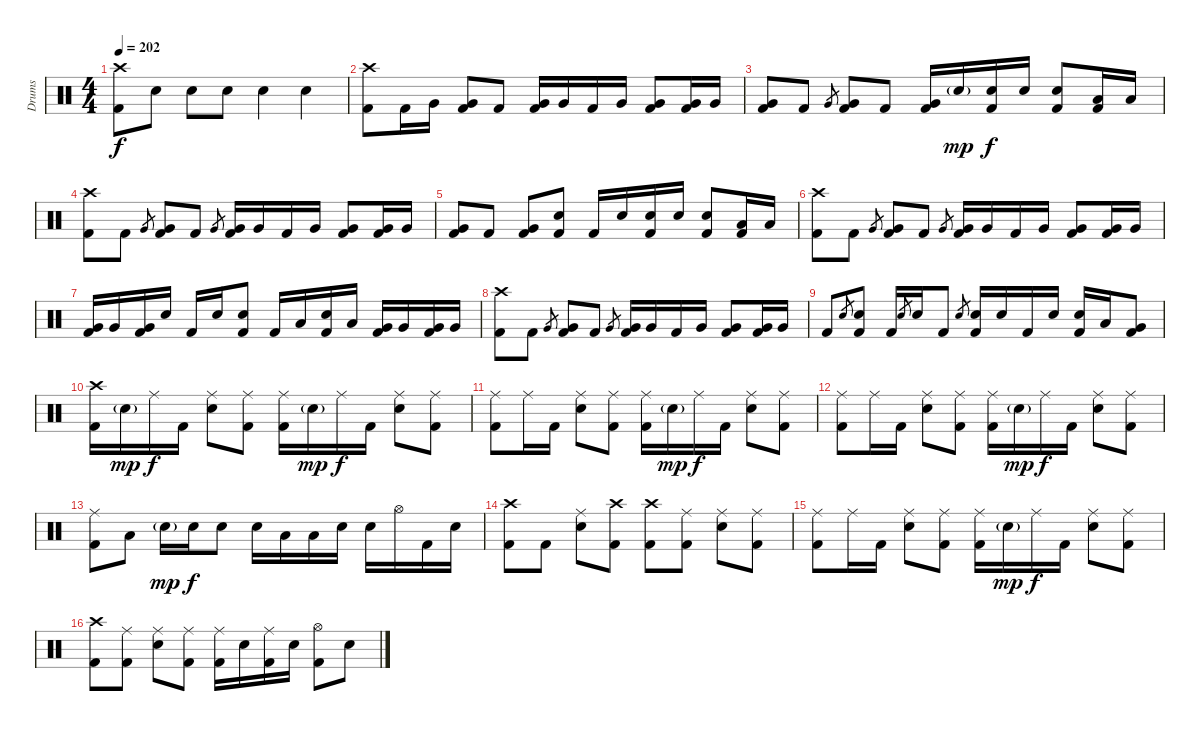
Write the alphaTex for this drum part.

\track ("Drums" "Drums") {instrument percussion}
\staff {score}
\articulation defaults
\ts (4 4)
\tempo 202
\clef neutral
\ks c
("Crash high (hit)" "Kick (hit) 2").8{dy f} "Electric Snare (hit)".8 "Electric Snare (hit)".8 "Electric Snare (hit)".8 "Electric Snare (hit)".4 "Electric Snare (hit)".4 |
("Crash high (hit)" "Kick (hit) 2").8 "Kick (hit) 2".16 "Very Low Tom (hit)".16 ("Very Low Tom (hit)" "Kick (hit) 2").8 "Kick (hit) 2".8 ("Very Low Tom (hit)" "Kick (hit) 2").16 "Very Low Tom (hit)".16 "Kick (hit) 2".16 "Very Low Tom (hit)".16 ("Very Low Tom (hit)" "Kick (hit) 2").8 ("Very Low Tom (hit)" "Kick (hit) 2").16 "Very Low Tom (hit)".16 |
("Very Low Tom (hit)" "Kick (hit) 2").8 "Kick (hit) 2".8 "Very Low Tom (hit)".8{gr} ("Very Low Tom (hit)" "Kick (hit) 2").8 "Kick (hit) 2".8 ("Very Low Tom (hit)" "Kick (hit) 2").16 "Electric Snare (hit)"{g}.16{dy mp} ("Electric Snare (hit)" "Kick (hit) 2").16{dy f} "Electric Snare (hit)".16 ("Electric Snare (hit)" "Kick (hit) 2").8 ("Low Tom (hit)" "Kick (hit) 2").16 "Low Tom (hit)".16 |
("Crash high (hit)" "Kick (hit) 2").8 "Kick (hit) 2".8 "Very Low Tom (hit)".8{gr} ("Very Low Tom (hit)" "Kick (hit) 2").8 "Kick (hit) 2".8 "Very Low Tom (hit)".8{gr} ("Very Low Tom (hit)" "Kick (hit) 2").16 "Very Low Tom (hit)".16 "Kick (hit) 2".16 "Very Low Tom (hit)".16 ("Very Low Tom (hit)" "Kick (hit) 2").8 ("Very Low Tom (hit)" "Kick (hit) 2").16 "Very Low Tom (hit)".16 |
("Very Low Tom (hit)" "Kick (hit) 2").8 "Kick (hit) 2".8 ("Very Low Tom (hit)" "Kick (hit) 2").8 ("Electric Snare (hit)" "Kick (hit) 2").8 "Kick (hit) 2".16 "Electric Snare (hit)".16 ("Electric Snare (hit)" "Kick (hit) 2").16 "Electric Snare (hit)".16 ("Electric Snare (hit)" "Kick (hit) 2").8 ("Low Tom (hit)" "Kick (hit) 2").16 "Low Tom (hit)".16 |
("Crash high (hit)" "Kick (hit) 2").8 "Kick (hit) 2".8 "Very Low Tom (hit)".8{gr} ("Very Low Tom (hit)" "Kick (hit) 2").8 "Kick (hit) 2".8 "Very Low Tom (hit)".8{gr} ("Very Low Tom (hit)" "Kick (hit) 2").16 "Very Low Tom (hit)".16 "Kick (hit) 2".16 "Very Low Tom (hit)".16 ("Very Low Tom (hit)" "Kick (hit) 2").8 ("Very Low Tom (hit)" "Kick (hit) 2").16 "Very Low Tom (hit)".16 |
("Very Low Tom (hit)" "Kick (hit) 2").16 "Very Low Tom (hit)".16 ("Very Low Tom (hit)" "Kick (hit) 2").16 "Electric Snare (hit)".16 "Kick (hit) 2".16 "Electric Snare (hit)".16 ("Electric Snare (hit)" "Kick (hit) 2").8 "Kick (hit) 2".16 "Low Tom (hit)".16 ("Electric Snare (hit)" "Kick (hit) 2").16 "Low Tom (hit)".16 ("Very Low Tom (hit)" "Kick (hit) 2").16 "Very Low Tom (hit)".16 ("Very Low Tom (hit)" "Kick (hit) 2").16 "Very Low Tom (hit)".16 |
("Crash high (hit)" "Kick (hit) 2").8 "Kick (hit) 2".8 "Very Low Tom (hit)".8{gr} ("Very Low Tom (hit)" "Kick (hit) 2").8 "Kick (hit) 2".8 "Very Low Tom (hit)".8{gr} ("Very Low Tom (hit)" "Kick (hit) 2").16 "Very Low Tom (hit)".16 "Kick (hit) 2".16 "Very Low Tom (hit)".16 ("Very Low Tom (hit)" "Kick (hit) 2").8 ("Very Low Tom (hit)" "Kick (hit) 2").16 "Very Low Tom (hit)".16 |
"Kick (hit) 2".8 "Electric Snare (hit)".8{gr} ("Electric Snare (hit)" "Kick (hit) 2").8 "Kick (hit) 2".16 "Electric Snare (hit)".8{gr} "Electric Snare (hit)".16 "Kick (hit) 2".8 "Electric Snare (hit)".8{gr} ("Electric Snare (hit)" "Kick (hit) 2").16 "Electric Snare (hit)".16 "Kick (hit) 2".16 "Electric Snare (hit)".16 ("Electric Snare (hit)" "Kick (hit) 2").16 "Low Tom (hit)".16 ("Very Low Tom (hit)" "Kick (hit) 2").8 |
("Crash high (hit)" "Kick (hit) 2").16 "Electric Snare (hit)"{g}.16{dy mp} "Ride (middle)".16{dy f} "Kick (hit) 2".16 ("Ride (middle)" "Electric Snare (hit)").8 ("Ride (middle)" "Kick (hit) 2").8 ("Ride (middle)" "Kick (hit) 2").16 "Electric Snare (hit)"{g}.16{dy mp} "Ride (middle)".16{dy f} "Kick (hit) 2".16 ("Ride (middle)" "Electric Snare (hit)").8 ("Ride (middle)" "Kick (hit) 2").8 |
("Ride (middle)" "Kick (hit) 2").8 "Ride (middle)".16 "Kick (hit) 2".16 ("Ride (middle)" "Electric Snare (hit)").8 ("Ride (middle)" "Kick (hit) 2").8 ("Ride (middle)" "Kick (hit) 2").16 "Electric Snare (hit)"{g}.16{dy mp} "Ride (middle)".16{dy f} "Kick (hit) 2".16 ("Ride (middle)" "Electric Snare (hit)").8 ("Ride (middle)" "Kick (hit) 2").8 |
("Ride (middle)" "Kick (hit) 2").8 "Ride (middle)".16 "Kick (hit) 2".16 ("Ride (middle)" "Electric Snare (hit)").8 ("Ride (middle)" "Kick (hit) 2").8 ("Ride (middle)" "Kick (hit) 2").16 "Electric Snare (hit)"{g}.16{dy mp} "Ride (middle)".16{dy f} "Kick (hit) 2".16 ("Ride (middle)" "Electric Snare (hit)").8 ("Ride (middle)" "Kick (hit) 2").8 |
("Ride (middle)" "Kick (hit) 2").8 "Low Tom (hit)".8 "Electric Snare (hit)"{g}.16{dy mp} "Electric Snare (hit)".16{dy f} "Electric Snare (hit)".8 "Electric Snare (hit)".16 "Low Tom (hit)".16 "Low Tom (hit)".16 "Electric Snare (hit)".16 "Electric Snare (hit)".16 "Hi-Hat (open)".16 "Kick (hit) 2".16 "Electric Snare (hit)".16 |
("Crash high (hit)" "Kick (hit) 2").8 "Kick (hit) 2".8 ("Ride (middle)" "Electric Snare (hit)").8 ("Crash high (hit)" "Kick (hit) 2").8 ("Crash high (hit)" "Kick (hit) 2").8 ("Ride (middle)" "Kick (hit) 2").8 ("Ride (middle)" "Electric Snare (hit)").8 ("Ride (middle)" "Kick (hit) 2").8 |
("Ride (middle)" "Kick (hit) 2").8 "Ride (middle)".16 "Kick (hit) 2".16 ("Ride (middle)" "Electric Snare (hit)").8 ("Ride (middle)" "Kick (hit) 2").8 ("Ride (middle)" "Kick (hit) 2").16 "Electric Snare (hit)"{g}.16{dy mp} "Ride (middle)".16{dy f} "Kick (hit) 2".16 ("Ride (middle)" "Electric Snare (hit)").8 ("Ride (middle)" "Kick (hit) 2").8 |
("Crash high (hit)" "Kick (hit) 2").8 ("Ride (middle)" "Kick (hit) 2").8 ("Ride (middle)" "Electric Snare (hit)").8 ("Ride (middle)" "Kick (hit) 2").8 ("Ride (middle)" "Kick (hit) 2").16 "Electric Snare (hit)".16 ("Ride (middle)" "Kick (hit) 2").16 "Electric Snare (hit)".16 ("Hi-Hat (open)" "Kick (hit) 2").8 "Electric Snare (hit)".8
